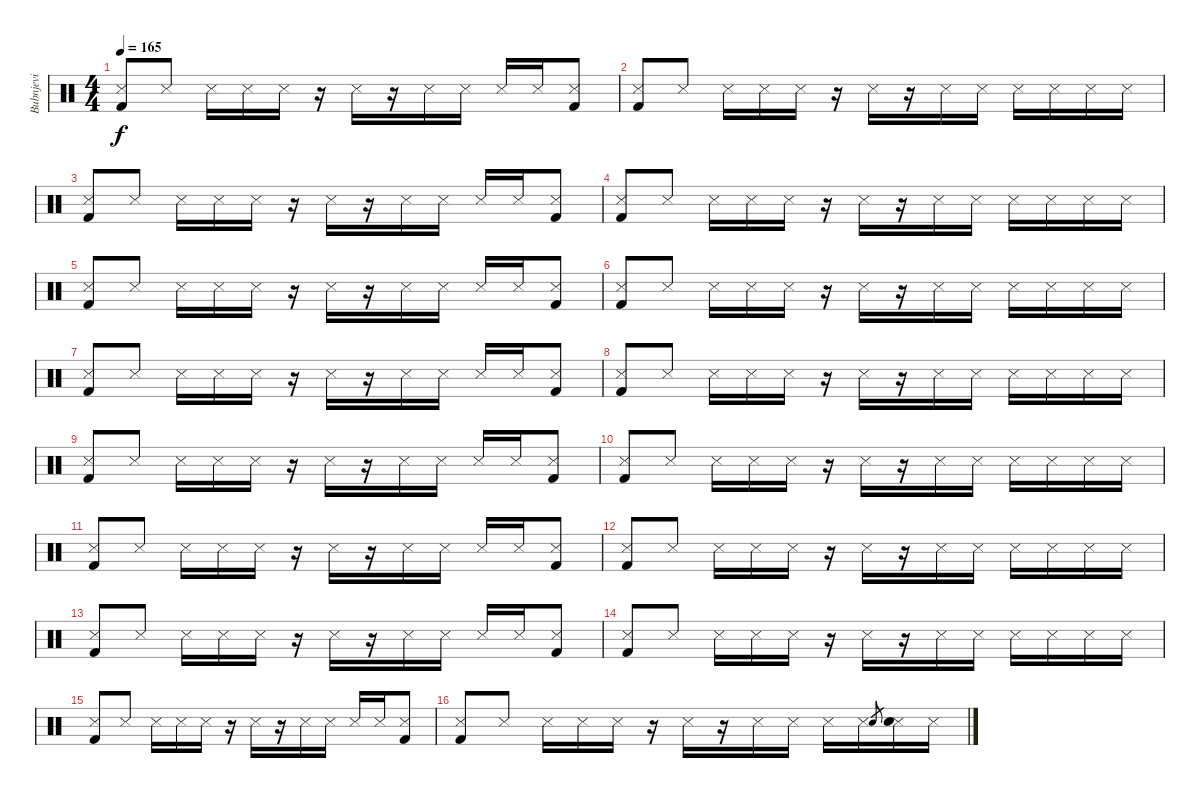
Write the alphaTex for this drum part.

\track ("Bubnjevi" "Bubnjevi") {instrument percussion}
\staff {score}
\articulation defaults
\ts (4 4)
\tempo 165
\tempo 135
\tempo 165
\clef neutral
\ks c
("Snare (side stick) 3" "Kick (hit) 2").8{dy f} "Snare (side stick) 3".8 "Snare (side stick) 3".16 "Metronome (hit)".16 "Snare (side stick) 3".16 r.16 "Snare (side stick) 3".16 r.16 "Snare (side stick) 3".16 "Metronome (hit)".16 "Snare (side stick) 3".16 "Metronome (hit)".16 ("Snare (side stick) 3" "Kick (hit) 2").8 |
("Snare (side stick) 3" "Kick (hit) 2").8 "Snare (side stick) 3".8 "Snare (side stick) 3".16 "Metronome (hit)".16 "Snare (side stick) 3".16 r.16 "Snare (side stick) 3".16 r.16 "Snare (side stick) 3".16 "Metronome (hit)".16 "Snare (side stick) 3".16 "Metronome (hit)".16 "Snare (side stick) 3".16 "Metronome (hit)".16 |
("Snare (side stick) 3" "Kick (hit) 2").8 "Snare (side stick) 3".8 "Snare (side stick) 3".16 "Metronome (hit)".16 "Snare (side stick) 3".16 r.16 "Snare (side stick) 3".16 r.16 "Snare (side stick) 3".16 "Metronome (hit)".16 "Snare (side stick) 3".16 "Metronome (hit)".16 ("Snare (side stick) 3" "Kick (hit) 2").8 |
("Snare (side stick) 3" "Kick (hit) 2").8 "Snare (side stick) 3".8 "Snare (side stick) 3".16 "Metronome (hit)".16 "Snare (side stick) 3".16 r.16 "Snare (side stick) 3".16 r.16 "Snare (side stick) 3".16 "Metronome (hit)".16 "Snare (side stick) 3".16 "Metronome (hit)".16 "Snare (side stick) 3".16 "Metronome (hit)".16 |
("Snare (side stick) 3" "Kick (hit) 2").8 "Snare (side stick) 3".8 "Snare (side stick) 3".16 "Metronome (hit)".16 "Snare (side stick) 3".16 r.16 "Snare (side stick) 3".16 r.16 "Snare (side stick) 3".16 "Metronome (hit)".16 "Snare (side stick) 3".16 "Metronome (hit)".16 ("Snare (side stick) 3" "Kick (hit) 2").8 |
("Snare (side stick) 3" "Kick (hit) 2").8 "Snare (side stick) 3".8 "Snare (side stick) 3".16 "Metronome (hit)".16 "Snare (side stick) 3".16 r.16 "Snare (side stick) 3".16 r.16 "Snare (side stick) 3".16 "Metronome (hit)".16 "Snare (side stick) 3".16 "Metronome (hit)".16 "Snare (side stick) 3".16 "Metronome (hit)".16 |
("Snare (side stick) 3" "Kick (hit) 2").8 "Snare (side stick) 3".8 "Snare (side stick) 3".16 "Metronome (hit)".16 "Snare (side stick) 3".16 r.16 "Snare (side stick) 3".16 r.16 "Snare (side stick) 3".16 "Metronome (hit)".16 "Snare (side stick) 3".16 "Metronome (hit)".16 ("Snare (side stick) 3" "Kick (hit) 2").8 |
("Snare (side stick) 3" "Kick (hit) 2").8 "Snare (side stick) 3".8 "Snare (side stick) 3".16 "Metronome (hit)".16 "Snare (side stick) 3".16 r.16 "Snare (side stick) 3".16 r.16 "Snare (side stick) 3".16 "Metronome (hit)".16 "Snare (side stick) 3".16 "Metronome (hit)".16 "Snare (side stick) 3".16 "Metronome (hit)".16 |
("Snare (side stick) 3" "Kick (hit) 2").8 "Snare (side stick) 3".8 "Snare (side stick) 3".16 "Metronome (hit)".16 "Snare (side stick) 3".16 r.16 "Snare (side stick) 3".16 r.16 "Snare (side stick) 3".16 "Metronome (hit)".16 "Snare (side stick) 3".16 "Metronome (hit)".16 ("Snare (side stick) 3" "Kick (hit) 2").8 |
("Snare (side stick) 3" "Kick (hit) 2").8 "Snare (side stick) 3".8 "Snare (side stick) 3".16 "Metronome (hit)".16 "Snare (side stick) 3".16 r.16 "Snare (side stick) 3".16 r.16 "Snare (side stick) 3".16 "Metronome (hit)".16 "Snare (side stick) 3".16 "Metronome (hit)".16 "Snare (side stick) 3".16 "Metronome (hit)".16 |
("Snare (side stick) 3" "Kick (hit) 2").8 "Snare (side stick) 3".8 "Snare (side stick) 3".16 "Metronome (hit)".16 "Snare (side stick) 3".16 r.16 "Snare (side stick) 3".16 r.16 "Snare (side stick) 3".16 "Metronome (hit)".16 "Snare (side stick) 3".16 "Metronome (hit)".16 ("Snare (side stick) 3" "Kick (hit) 2").8 |
("Snare (side stick) 3" "Kick (hit) 2").8 "Snare (side stick) 3".8 "Snare (side stick) 3".16 "Metronome (hit)".16 "Snare (side stick) 3".16 r.16 "Snare (side stick) 3".16 r.16 "Snare (side stick) 3".16 "Metronome (hit)".16 "Snare (side stick) 3".16 "Metronome (hit)".16 "Snare (side stick) 3".16 "Metronome (hit)".16 |
("Snare (side stick) 3" "Kick (hit) 2").8 "Snare (side stick) 3".8 "Snare (side stick) 3".16 "Metronome (hit)".16 "Snare (side stick) 3".16 r.16 "Snare (side stick) 3".16 r.16 "Snare (side stick) 3".16 "Metronome (hit)".16 "Snare (side stick) 3".16 "Metronome (hit)".16 ("Snare (side stick) 3" "Kick (hit) 2").8 |
("Snare (side stick) 3" "Kick (hit) 2").8 "Snare (side stick) 3".8 "Snare (side stick) 3".16 "Metronome (hit)".16 "Snare (side stick) 3".16 r.16 "Snare (side stick) 3".16 r.16 "Snare (side stick) 3".16 "Metronome (hit)".16 "Snare (side stick) 3".16 "Metronome (hit)".16 "Snare (side stick) 3".16 "Metronome (hit)".16 |
("Snare (side stick) 3" "Kick (hit) 2").8 "Snare (side stick) 3".8 "Snare (side stick) 3".16 "Metronome (hit)".16 "Snare (side stick) 3".16 r.16 "Snare (side stick) 3".16 r.16 "Snare (side stick) 3".16 "Metronome (hit)".16 "Snare (side stick) 3".16 "Metronome (hit)".16 ("Snare (side stick) 3" "Kick (hit) 2").8 |
("Snare (side stick) 3" "Kick (hit) 2").8 "Snare (side stick) 3".8 "Snare (side stick) 3".16 "Metronome (hit)".16 "Snare (side stick) 3".16 r.16 "Snare (side stick) 3".16 r.16 "Snare (side stick) 3".16 "Metronome (hit)".16 "Snare (side stick) 3".16 "Metronome (hit)".16 "Electric Snare (hit)".8{gr} ("Snare (side stick) 3" "Electric Snare (hit)").16 "Metronome (hit)".16
